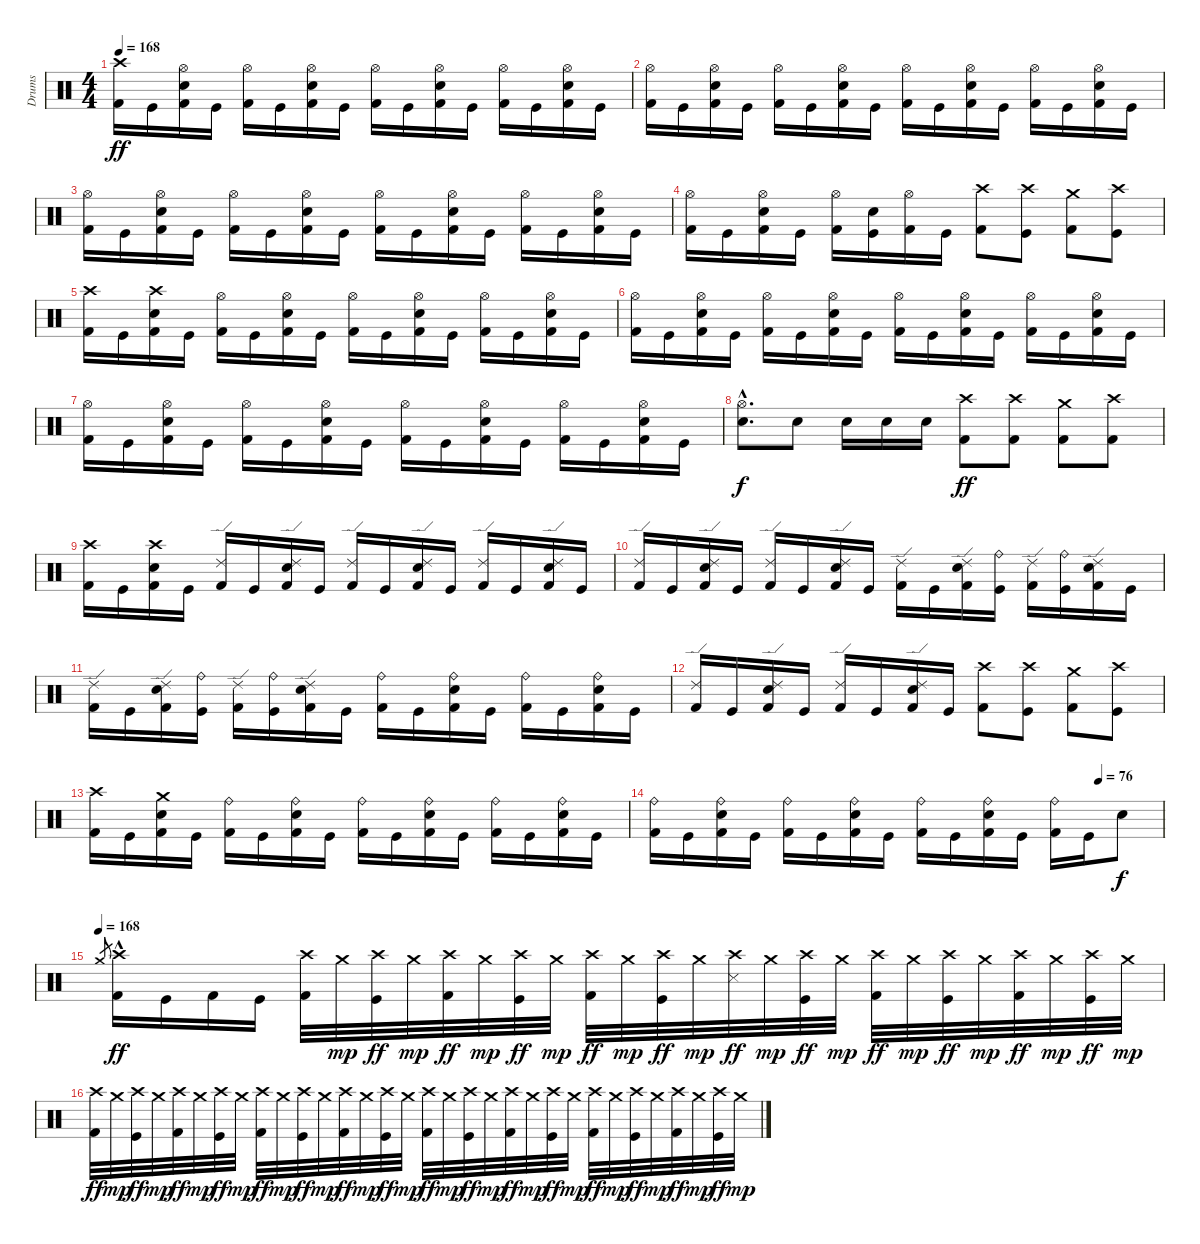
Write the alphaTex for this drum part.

\track ("Drums" "Drums") {instrument percussion}
\staff {score}
\articulation defaults
\ts (4 4)
\tempo 168
\clef neutral
\ks c
("Crash high (hit)" "Kick (hit) 2").16{dy ff} "Kick (hit)".16 ("Hi-Hat (open)" "Electric Snare (hit)" "Kick (hit) 2").16 "Kick (hit)".16 ("Hi-Hat (open)" "Kick (hit) 2").16 "Kick (hit)".16 ("Hi-Hat (open)" "Electric Snare (hit)" "Kick (hit) 2").16 "Kick (hit)".16 ("Hi-Hat (open)" "Kick (hit) 2").16 "Kick (hit)".16 ("Hi-Hat (open)" "Electric Snare (hit)" "Kick (hit) 2").16 "Kick (hit)".16 ("Hi-Hat (open)" "Kick (hit) 2").16 "Kick (hit)".16 ("Hi-Hat (open)" "Electric Snare (hit)" "Kick (hit) 2").16 "Kick (hit)".16 |
("Hi-Hat (open)" "Kick (hit) 2").16 "Kick (hit)".16 ("Hi-Hat (open)" "Electric Snare (hit)" "Kick (hit) 2").16 "Kick (hit)".16 ("Hi-Hat (open)" "Kick (hit) 2").16 "Kick (hit)".16 ("Hi-Hat (open)" "Electric Snare (hit)" "Kick (hit) 2").16 "Kick (hit)".16 ("Hi-Hat (open)" "Kick (hit) 2").16 "Kick (hit)".16 ("Hi-Hat (open)" "Electric Snare (hit)" "Kick (hit) 2").16 "Kick (hit)".16 ("Hi-Hat (open)" "Kick (hit) 2").16 "Kick (hit)".16 ("Hi-Hat (open)" "Electric Snare (hit)" "Kick (hit) 2").16 "Kick (hit)".16 |
("Hi-Hat (open)" "Kick (hit) 2").16 "Kick (hit)".16 ("Hi-Hat (open)" "Electric Snare (hit)" "Kick (hit) 2").16 "Kick (hit)".16 ("Hi-Hat (open)" "Kick (hit) 2").16 "Kick (hit)".16 ("Hi-Hat (open)" "Electric Snare (hit)" "Kick (hit) 2").16 "Kick (hit)".16 ("Hi-Hat (open)" "Kick (hit) 2").16 "Kick (hit)".16 ("Hi-Hat (open)" "Electric Snare (hit)" "Kick (hit) 2").16 "Kick (hit)".16 ("Hi-Hat (open)" "Kick (hit) 2").16 "Kick (hit)".16 ("Hi-Hat (open)" "Electric Snare (hit)" "Kick (hit) 2").16 "Kick (hit)".16 |
("Hi-Hat (open)" "Kick (hit) 2").16 "Kick (hit)".16 ("Hi-Hat (open)" "Electric Snare (hit)" "Kick (hit) 2").16 "Kick (hit)".16 ("Hi-Hat (open)" "Kick (hit) 2").16 ("Electric Snare (hit)" "Kick (hit)").16 ("Hi-Hat (open)" "Kick (hit) 2").16 "Kick (hit)".16 ("Crash high (hit)" "Kick (hit) 2").8 ("Crash high (hit)" "Kick (hit)").8 ("Crash medium (hit)" "Kick (hit) 2").8 ("Crash high (hit)" "Kick (hit)").8 |
("Crash high (hit)" "Kick (hit) 2").16 "Kick (hit)".16 ("Crash high (hit)" "Electric Snare (hit)" "Kick (hit) 2").16 "Kick (hit)".16 ("Hi-Hat (open)" "Kick (hit) 2").16 "Kick (hit)".16 ("Hi-Hat (open)" "Electric Snare (hit)" "Kick (hit) 2").16 "Kick (hit)".16 ("Hi-Hat (open)" "Kick (hit) 2").16 "Kick (hit)".16 ("Hi-Hat (open)" "Electric Snare (hit)" "Kick (hit) 2").16 "Kick (hit)".16 ("Hi-Hat (open)" "Kick (hit) 2").16 "Kick (hit)".16 ("Hi-Hat (open)" "Electric Snare (hit)" "Kick (hit) 2").16 "Kick (hit)".16 |
("Hi-Hat (open)" "Kick (hit) 2").16 "Kick (hit)".16 ("Hi-Hat (open)" "Electric Snare (hit)" "Kick (hit) 2").16 "Kick (hit)".16 ("Hi-Hat (open)" "Kick (hit) 2").16 "Kick (hit)".16 ("Hi-Hat (open)" "Electric Snare (hit)" "Kick (hit) 2").16 "Kick (hit)".16 ("Hi-Hat (open)" "Kick (hit) 2").16 "Kick (hit)".16 ("Hi-Hat (open)" "Electric Snare (hit)" "Kick (hit) 2").16 "Kick (hit)".16 ("Hi-Hat (open)" "Kick (hit) 2").16 "Kick (hit)".16 ("Hi-Hat (open)" "Electric Snare (hit)" "Kick (hit) 2").16 "Kick (hit)".16 |
("Hi-Hat (open)" "Kick (hit) 2").16 "Kick (hit)".16 ("Hi-Hat (open)" "Electric Snare (hit)" "Kick (hit) 2").16 "Kick (hit)".16 ("Hi-Hat (open)" "Kick (hit) 2").16 "Kick (hit)".16 ("Hi-Hat (open)" "Electric Snare (hit)" "Kick (hit) 2").16 "Kick (hit)".16 ("Hi-Hat (open)" "Kick (hit) 2").16 "Kick (hit)".16 ("Hi-Hat (open)" "Electric Snare (hit)" "Kick (hit) 2").16 "Kick (hit)".16 ("Hi-Hat (open)" "Kick (hit) 2").16 "Kick (hit)".16 ("Hi-Hat (open)" "Electric Snare (hit)" "Kick (hit) 2").16 "Kick (hit)".16 |
("Hi-Hat (open)"{hac} "Electric Snare (hit)"{hac}).8{d dy f} "Electric Snare (hit)".8 "Electric Snare (hit)".16 "Electric Snare (hit)".16 "Electric Snare (hit)".16 ("Crash high (hit)" "Kick (hit) 2").8{dy ff} ("Crash high (hit)" "Kick (hit) 2").8 ("Crash medium (hit)" "Kick (hit) 2").8 ("Crash high (hit)" "Kick (hit) 2").8 |
("Crash high (hit)" "Kick (hit) 2").16 "Kick (hit)".16 ("Crash high (hit)" "Electric Snare (hit)" "Kick (hit) 2").16 "Kick (hit)".16 ("Ride (edge) 2" "Kick (hit) 2").16 "Kick (hit)".16 ("Ride (edge) 2" "Electric Snare (hit)" "Kick (hit) 2").16 "Kick (hit)".16 ("Ride (edge) 2" "Kick (hit) 2").16 "Kick (hit)".16 ("Ride (edge) 2" "Electric Snare (hit)" "Kick (hit) 2").16 "Kick (hit)".16 ("Ride (edge) 2" "Kick (hit) 2").16 "Kick (hit)".16 ("Ride (edge) 2" "Electric Snare (hit)" "Kick (hit) 2").16 "Kick (hit)".16 |
("Ride (edge) 2" "Kick (hit) 2").16 "Kick (hit)".16 ("Ride (edge) 2" "Electric Snare (hit)" "Kick (hit) 2").16 "Kick (hit)".16 ("Ride (edge) 2" "Kick (hit) 2").16 "Kick (hit)".16 ("Ride (edge) 2" "Electric Snare (hit)" "Kick (hit) 2").16 "Kick (hit)".16 ("Ride (edge) 2" "Kick (hit) 2").16 "Kick (hit)".16 ("Ride (edge) 2" "Electric Snare (hit)" "Kick (hit) 2").16 ("Ride (bell)" "Kick (hit)").16 ("Ride (edge) 2" "Kick (hit) 2").16 ("Ride (bell)" "Kick (hit)").16 ("Ride (edge) 2" "Electric Snare (hit)" "Kick (hit) 2").16 "Kick (hit)".16 |
("Ride (edge) 2" "Kick (hit) 2").16 "Kick (hit)".16 ("Ride (edge) 2" "Electric Snare (hit)" "Kick (hit) 2").16 ("Ride (bell)" "Kick (hit)").16 ("Ride (edge) 2" "Kick (hit) 2").16 ("Ride (bell)" "Kick (hit)").16 ("Ride (edge) 2" "Electric Snare (hit)" "Kick (hit) 2").16 "Kick (hit)".16 ("Ride (bell)" "Kick (hit) 2").16 "Kick (hit)".16 ("Ride (bell)" "Electric Snare (hit)" "Kick (hit) 2").16 "Kick (hit)".16 ("Ride (bell)" "Kick (hit) 2").16 "Kick (hit)".16 ("Ride (bell)" "Electric Snare (hit)" "Kick (hit) 2").16 "Kick (hit)".16 |
("Ride (edge) 2" "Kick (hit) 2").16 "Kick (hit)".16 ("Ride (edge) 2" "Electric Snare (hit)" "Kick (hit) 2").16 "Kick (hit)".16 ("Ride (edge) 2" "Kick (hit) 2").16 "Kick (hit)".16 ("Ride (edge) 2" "Electric Snare (hit)" "Kick (hit) 2").16 "Kick (hit)".16 ("Crash high (hit)" "Kick (hit) 2").8 ("Crash high (hit)" "Kick (hit)").8 ("Crash medium (hit)" "Kick (hit) 2").8 ("Crash high (hit)" "Kick (hit)").8 |
("Crash high (hit)" "Kick (hit) 2").16 "Kick (hit)".16 ("Crash medium (hit)" "Electric Snare (hit)" "Kick (hit) 2").16 "Kick (hit)".16 ("Ride (bell)" "Kick (hit) 2").16 "Kick (hit)".16 ("Ride (bell)" "Electric Snare (hit)" "Kick (hit) 2").16 "Kick (hit)".16 ("Ride (bell)" "Kick (hit) 2").16 "Kick (hit)".16 ("Ride (bell)" "Electric Snare (hit)" "Kick (hit) 2").16 "Kick (hit)".16 ("Ride (bell)" "Kick (hit) 2").16 "Kick (hit)".16 ("Ride (bell)" "Electric Snare (hit)" "Kick (hit) 2").16 "Kick (hit)".16 |
\tempo (76 0.875)
("Ride (bell)" "Kick (hit) 2").16 "Kick (hit)".16 ("Ride (bell)" "Electric Snare (hit)" "Kick (hit) 2").16 "Kick (hit)".16 ("Ride (bell)" "Kick (hit) 2").16 "Kick (hit)".16 ("Ride (bell)" "Electric Snare (hit)" "Kick (hit) 2").16 "Kick (hit)".16 ("Ride (bell)" "Kick (hit) 2").16 "Kick (hit)".16 ("Ride (bell)" "Electric Snare (hit)" "Kick (hit) 2").16 "Kick (hit)".16 ("Ride (bell)" "Kick (hit) 2").16 "Kick (hit)".16 "Electric Snare (hit)".8{dy f} |
\tempo (168)
"Crash medium (hit)".8{gr} ("Crash high (hit)"{hac} "Kick (hit) 2").16{dy ff} "Kick (hit)".16 "Kick (hit) 2".16 "Kick (hit)".16 ("Crash high (hit)" "Kick (hit) 2").32 "Crash medium (hit)".32{dy mp} ("Crash high (hit)" "Kick (hit)").32{dy ff} "Crash medium (hit)".32{dy mp} ("Crash high (hit)" "Kick (hit) 2").32{dy ff} "Crash medium (hit)".32{dy mp} ("Crash high (hit)" "Kick (hit)").32{dy ff} "Crash medium (hit)".32{dy mp} ("Crash high (hit)" "Kick (hit) 2").32{dy ff} "Crash medium (hit)".32{dy mp} ("Crash high (hit)" "Kick (hit)").32{dy ff} "Crash medium (hit)".32{dy mp} ("Crash high (hit)" "Snare (side stick) 3").32{dy ff} "Crash medium (hit)".32{dy mp} ("Crash high (hit)" "Kick (hit)").32{dy ff} "Crash medium (hit)".32{dy mp} ("Crash high (hit)" "Kick (hit) 2").32{dy ff} "Crash medium (hit)".32{dy mp} ("Crash high (hit)" "Kick (hit)").32{dy ff} "Crash medium (hit)".32{dy mp} ("Crash high (hit)" "Kick (hit) 2").32{dy ff} "Crash medium (hit)".32{dy mp} ("Crash high (hit)" "Kick (hit)").32{dy ff} "Crash medium (hit)".32{dy mp} |
("Crash high (hit)" "Kick (hit) 2").32{dy ff} "Crash medium (hit)".32{dy mp} ("Crash high (hit)" "Kick (hit)").32{dy ff} "Crash medium (hit)".32{dy mp} ("Crash high (hit)" "Kick (hit) 2").32{dy ff} "Crash medium (hit)".32{dy mp} ("Crash high (hit)" "Kick (hit)").32{dy ff} "Crash medium (hit)".32{dy mp} ("Crash high (hit)" "Kick (hit) 2").32{dy ff} "Crash medium (hit)".32{dy mp} ("Crash high (hit)" "Kick (hit)").32{dy ff} "Crash medium (hit)".32{dy mp} ("Crash high (hit)" "Kick (hit) 2").32{dy ff} "Crash medium (hit)".32{dy mp} ("Crash high (hit)" "Kick (hit)").32{dy ff} "Crash medium (hit)".32{dy mp} ("Crash high (hit)" "Kick (hit) 2").32{dy ff} "Crash medium (hit)".32{dy mp} ("Crash high (hit)" "Kick (hit)").32{dy ff} "Crash medium (hit)".32{dy mp} ("Crash high (hit)" "Kick (hit) 2").32{dy ff} "Crash medium (hit)".32{dy mp} ("Crash high (hit)" "Kick (hit)").32{dy ff} "Crash medium (hit)".32{dy mp} ("Crash high (hit)" "Kick (hit) 2").32{dy ff} "Crash medium (hit)".32{dy mp} ("Crash high (hit)" "Kick (hit)").32{dy ff} "Crash medium (hit)".32{dy mp} ("Crash high (hit)" "Kick (hit) 2").32{dy ff} "Crash medium (hit)".32{dy mp} ("Crash high (hit)" "Kick (hit)").32{dy ff} "Crash medium (hit)".32{dy mp}
